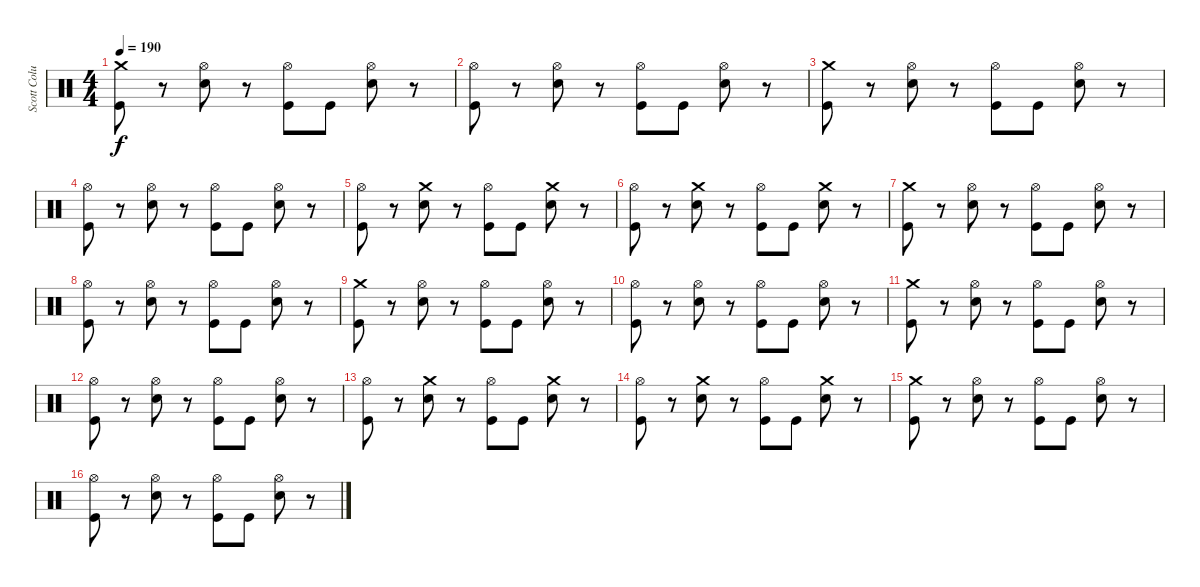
\track ("Scott Columbus" "Scott Colu") {instrument percussion}
\staff {score}
\articulation defaults
\ts (4 4)
\tempo 190
\clef neutral
\ks c
("Crash medium (hit)" "Kick (hit)").8{dy f} r.8 ("Hi-Hat (open)" "Snare (hit) 2").8 r.8 ("Hi-Hat (open)" "Kick (hit)").8 "Kick (hit)".8 ("Hi-Hat (open)" "Snare (hit) 2").8 r.8 |
("Hi-Hat (open)" "Kick (hit)").8 r.8 ("Hi-Hat (open)" "Snare (hit) 2").8 r.8 ("Hi-Hat (open)" "Kick (hit)").8 "Kick (hit)".8 ("Hi-Hat (open)" "Snare (hit) 2").8 r.8 |
("Crash medium (hit)" "Kick (hit)").8 r.8 ("Hi-Hat (open)" "Snare (hit) 2").8 r.8 ("Hi-Hat (open)" "Kick (hit)").8 "Kick (hit)".8 ("Hi-Hat (open)" "Snare (hit) 2").8 r.8 |
("Hi-Hat (open)" "Kick (hit)").8 r.8 ("Hi-Hat (open)" "Snare (hit) 2").8 r.8 ("Hi-Hat (open)" "Kick (hit)").8 "Kick (hit)".8 ("Hi-Hat (open)" "Snare (hit) 2").8 r.8 |
("Hi-Hat (open)" "Kick (hit)").8 r.8 ("Crash medium (hit)" "Snare (hit) 2").8 r.8 ("Hi-Hat (open)" "Kick (hit)").8 "Kick (hit)".8 ("Crash medium (hit)" "Snare (hit) 2").8 r.8 |
("Hi-Hat (open)" "Kick (hit)").8 r.8 ("Crash medium (hit)" "Snare (hit) 2").8 r.8 ("Hi-Hat (open)" "Kick (hit)").8 "Kick (hit)".8 ("Crash medium (hit)" "Snare (hit) 2").8 r.8 |
("Crash medium (hit)" "Kick (hit)").8 r.8 ("Hi-Hat (open)" "Snare (hit) 2").8 r.8 ("Hi-Hat (open)" "Kick (hit)").8 "Kick (hit)".8 ("Hi-Hat (open)" "Snare (hit) 2").8 r.8 |
("Hi-Hat (open)" "Kick (hit)").8 r.8 ("Hi-Hat (open)" "Snare (hit) 2").8 r.8 ("Hi-Hat (open)" "Kick (hit)").8 "Kick (hit)".8 ("Hi-Hat (open)" "Snare (hit) 2").8 r.8 |
("Crash medium (hit)" "Kick (hit)").8 r.8 ("Hi-Hat (open)" "Snare (hit) 2").8 r.8 ("Hi-Hat (open)" "Kick (hit)").8 "Kick (hit)".8 ("Hi-Hat (open)" "Snare (hit) 2").8 r.8 |
("Hi-Hat (open)" "Kick (hit)").8 r.8 ("Hi-Hat (open)" "Snare (hit) 2").8 r.8 ("Hi-Hat (open)" "Kick (hit)").8 "Kick (hit)".8 ("Hi-Hat (open)" "Snare (hit) 2").8 r.8 |
("Crash medium (hit)" "Kick (hit)").8 r.8 ("Hi-Hat (open)" "Snare (hit) 2").8 r.8 ("Hi-Hat (open)" "Kick (hit)").8 "Kick (hit)".8 ("Hi-Hat (open)" "Snare (hit) 2").8 r.8 |
("Hi-Hat (open)" "Kick (hit)").8 r.8 ("Hi-Hat (open)" "Snare (hit) 2").8 r.8 ("Hi-Hat (open)" "Kick (hit)").8 "Kick (hit)".8 ("Hi-Hat (open)" "Snare (hit) 2").8 r.8 |
("Hi-Hat (open)" "Kick (hit)").8 r.8 ("Crash medium (hit)" "Snare (hit) 2").8 r.8 ("Hi-Hat (open)" "Kick (hit)").8 "Kick (hit)".8 ("Crash medium (hit)" "Snare (hit) 2").8 r.8 |
("Hi-Hat (open)" "Kick (hit)").8 r.8 ("Crash medium (hit)" "Snare (hit) 2").8 r.8 ("Hi-Hat (open)" "Kick (hit)").8 "Kick (hit)".8 ("Crash medium (hit)" "Snare (hit) 2").8 r.8 |
("Crash medium (hit)" "Kick (hit)").8 r.8 ("Hi-Hat (open)" "Snare (hit) 2").8 r.8 ("Hi-Hat (open)" "Kick (hit)").8 "Kick (hit)".8 ("Hi-Hat (open)" "Snare (hit) 2").8 r.8 |
("Hi-Hat (open)" "Kick (hit)").8 r.8 ("Hi-Hat (open)" "Snare (hit) 2").8 r.8 ("Hi-Hat (open)" "Kick (hit)").8 "Kick (hit)".8 ("Hi-Hat (open)" "Snare (hit) 2").8 r.8
